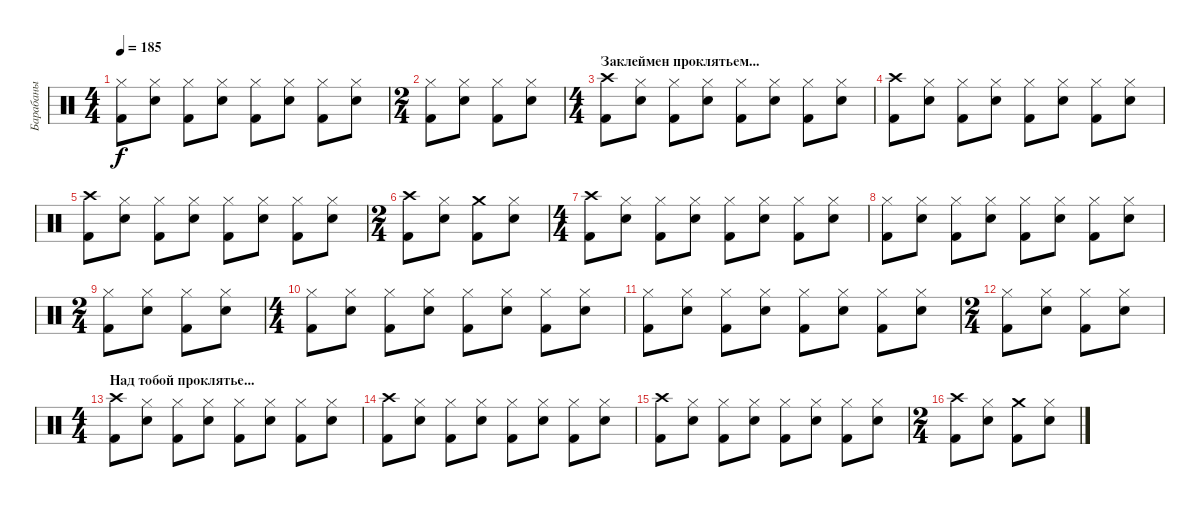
\track ("Барабаны" "Барабаны") {instrument percussion}
\staff {score}
\articulation defaults
\ts (4 4)
\tempo 185
\clef neutral
\ks c
("Hi-Hat (closed)" "Kick (hit) 2").8{dy f} ("Hi-Hat (closed)" "Snare (hit) 2").8 ("Hi-Hat (closed)" "Kick (hit) 2").8 ("Hi-Hat (closed)" "Snare (hit) 2").8 ("Hi-Hat (closed)" "Kick (hit) 2").8 ("Hi-Hat (closed)" "Snare (hit) 2").8 ("Hi-Hat (closed)" "Kick (hit) 2").8 ("Hi-Hat (closed)" "Snare (hit) 2").8 |
\ts (2 4)
("Hi-Hat (closed)" "Kick (hit) 2").8 ("Hi-Hat (closed)" "Snare (hit) 2").8 ("Hi-Hat (closed)" "Kick (hit) 2").8 ("Hi-Hat (closed)" "Snare (hit) 2").8 |
\ts (4 4)
\section ("" "Заклеймен проклятьем...")
("Crash high (hit)" "Kick (hit) 2").8 ("Hi-Hat (closed)" "Snare (hit) 2").8 ("Hi-Hat (closed)" "Kick (hit) 2").8 ("Hi-Hat (closed)" "Snare (hit) 2").8 ("Hi-Hat (closed)" "Kick (hit) 2").8 ("Hi-Hat (closed)" "Snare (hit) 2").8 ("Hi-Hat (closed)" "Kick (hit) 2").8 ("Hi-Hat (closed)" "Snare (hit) 2").8 |
("Crash high (hit)" "Kick (hit) 2").8 ("Hi-Hat (closed)" "Snare (hit) 2").8 ("Hi-Hat (closed)" "Kick (hit) 2").8 ("Hi-Hat (closed)" "Snare (hit) 2").8 ("Hi-Hat (closed)" "Kick (hit) 2").8 ("Hi-Hat (closed)" "Snare (hit) 2").8 ("Hi-Hat (closed)" "Kick (hit) 2").8 ("Hi-Hat (closed)" "Snare (hit) 2").8 |
("Crash high (hit)" "Kick (hit) 2").8 ("Hi-Hat (closed)" "Snare (hit) 2").8 ("Hi-Hat (closed)" "Kick (hit) 2").8 ("Hi-Hat (closed)" "Snare (hit) 2").8 ("Hi-Hat (closed)" "Kick (hit) 2").8 ("Hi-Hat (closed)" "Snare (hit) 2").8 ("Hi-Hat (closed)" "Kick (hit) 2").8 ("Hi-Hat (closed)" "Snare (hit) 2").8 |
\ts (2 4)
("Crash high (hit)" "Kick (hit) 2").8 ("Hi-Hat (closed)" "Snare (hit) 2").8 ("Crash medium (hit)" "Kick (hit) 2").8 ("Hi-Hat (closed)" "Snare (hit) 2").8 |
\ts (4 4)
("Crash high (hit)" "Kick (hit) 2").8 ("Hi-Hat (closed)" "Snare (hit) 2").8 ("Hi-Hat (closed)" "Kick (hit) 2").8 ("Hi-Hat (closed)" "Snare (hit) 2").8 ("Hi-Hat (closed)" "Kick (hit) 2").8 ("Hi-Hat (closed)" "Snare (hit) 2").8 ("Hi-Hat (closed)" "Kick (hit) 2").8 ("Hi-Hat (closed)" "Snare (hit) 2").8 |
("Hi-Hat (closed)" "Kick (hit) 2").8 ("Hi-Hat (closed)" "Snare (hit) 2").8 ("Hi-Hat (closed)" "Kick (hit) 2").8 ("Hi-Hat (closed)" "Snare (hit) 2").8 ("Hi-Hat (closed)" "Kick (hit) 2").8 ("Hi-Hat (closed)" "Snare (hit) 2").8 ("Hi-Hat (closed)" "Kick (hit) 2").8 ("Hi-Hat (closed)" "Snare (hit) 2").8 |
\ts (2 4)
("Hi-Hat (closed)" "Kick (hit) 2").8 ("Hi-Hat (closed)" "Snare (hit) 2").8 ("Hi-Hat (closed)" "Kick (hit) 2").8 ("Hi-Hat (closed)" "Snare (hit) 2").8 |
\ts (4 4)
("Hi-Hat (closed)" "Kick (hit) 2").8 ("Hi-Hat (closed)" "Snare (hit) 2").8 ("Hi-Hat (closed)" "Kick (hit) 2").8 ("Hi-Hat (closed)" "Snare (hit) 2").8 ("Hi-Hat (closed)" "Kick (hit) 2").8 ("Hi-Hat (closed)" "Snare (hit) 2").8 ("Hi-Hat (closed)" "Kick (hit) 2").8 ("Hi-Hat (closed)" "Snare (hit) 2").8 |
("Hi-Hat (closed)" "Kick (hit) 2").8 ("Hi-Hat (closed)" "Snare (hit) 2").8 ("Hi-Hat (closed)" "Kick (hit) 2").8 ("Hi-Hat (closed)" "Snare (hit) 2").8 ("Hi-Hat (closed)" "Kick (hit) 2").8 ("Hi-Hat (closed)" "Snare (hit) 2").8 ("Hi-Hat (closed)" "Kick (hit) 2").8 ("Hi-Hat (closed)" "Snare (hit) 2").8 |
\ts (2 4)
("Hi-Hat (closed)" "Kick (hit) 2").8 ("Hi-Hat (closed)" "Snare (hit) 2").8 ("Hi-Hat (closed)" "Kick (hit) 2").8 ("Hi-Hat (closed)" "Snare (hit) 2").8 |
\ts (4 4)
\section ("" "Над тобой проклятье...")
("Crash high (hit)" "Kick (hit) 2").8 ("Hi-Hat (closed)" "Snare (hit) 2").8 ("Hi-Hat (closed)" "Kick (hit) 2").8 ("Hi-Hat (closed)" "Snare (hit) 2").8 ("Hi-Hat (closed)" "Kick (hit) 2").8 ("Hi-Hat (closed)" "Snare (hit) 2").8 ("Hi-Hat (closed)" "Kick (hit) 2").8 ("Hi-Hat (closed)" "Snare (hit) 2").8 |
("Crash high (hit)" "Kick (hit) 2").8 ("Hi-Hat (closed)" "Snare (hit) 2").8 ("Hi-Hat (closed)" "Kick (hit) 2").8 ("Hi-Hat (closed)" "Snare (hit) 2").8 ("Hi-Hat (closed)" "Kick (hit) 2").8 ("Hi-Hat (closed)" "Snare (hit) 2").8 ("Hi-Hat (closed)" "Kick (hit) 2").8 ("Hi-Hat (closed)" "Snare (hit) 2").8 |
("Crash high (hit)" "Kick (hit) 2").8 ("Hi-Hat (closed)" "Snare (hit) 2").8 ("Hi-Hat (closed)" "Kick (hit) 2").8 ("Hi-Hat (closed)" "Snare (hit) 2").8 ("Hi-Hat (closed)" "Kick (hit) 2").8 ("Hi-Hat (closed)" "Snare (hit) 2").8 ("Hi-Hat (closed)" "Kick (hit) 2").8 ("Hi-Hat (closed)" "Snare (hit) 2").8 |
\ts (2 4)
("Crash high (hit)" "Kick (hit) 2").8 ("Hi-Hat (closed)" "Snare (hit) 2").8 ("Crash medium (hit)" "Kick (hit) 2").8 ("Hi-Hat (closed)" "Snare (hit) 2").8
